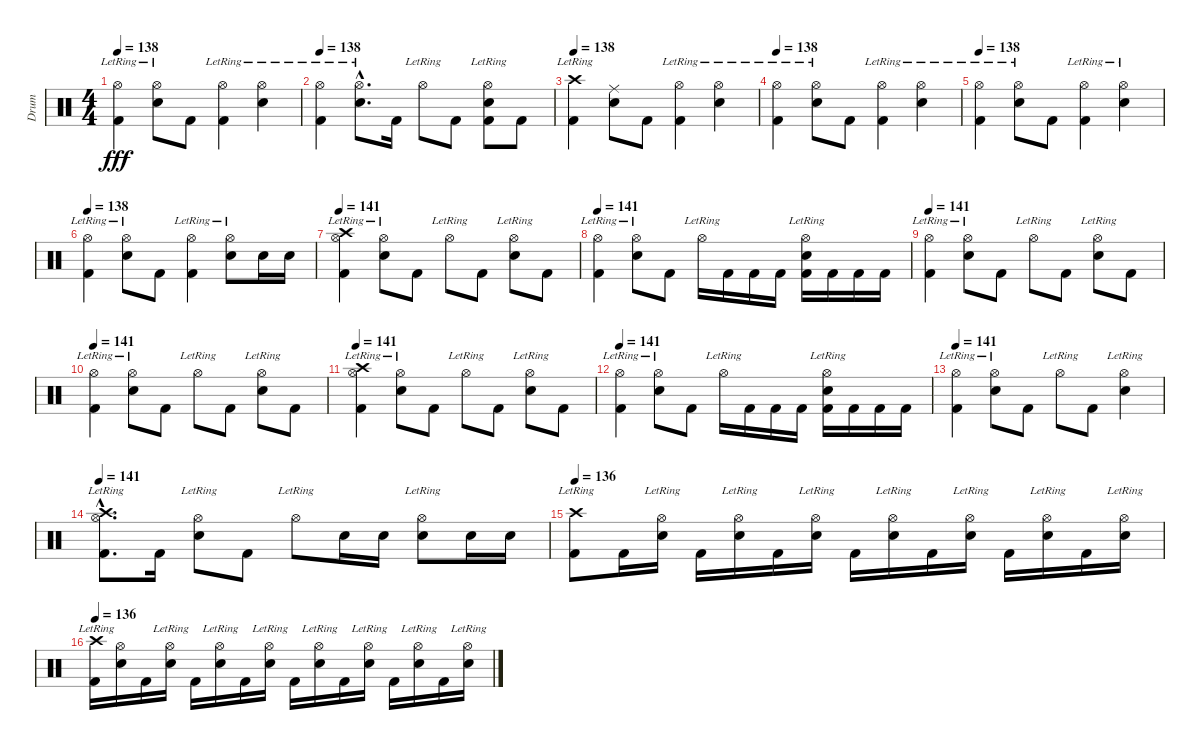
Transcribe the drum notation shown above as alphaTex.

\track ("Drum" "Drum") {instrument percussion}
\staff {score}
\articulation defaults
\ts (4 4)
\tempo 138
\clef neutral
\ks c
("Hi-Hat (open)"{lr} "Kick (hit) 2").4{dy fff} ("Hi-Hat (open)"{lr} "Electric Snare (hit)").8 "Kick (hit) 2".8 ("Hi-Hat (open)"{lr} "Kick (hit) 2").4 ("Hi-Hat (open)"{lr} "Electric Snare (hit)").4 |
\tempo 138
("Hi-Hat (open)"{lr} "Kick (hit) 2").4 ("Hi-Hat (open)"{hac lr} "Electric Snare (hit)"{hac}).8{d} "Kick (hit) 2".16 "Hi-Hat (open)"{lr}.8 "Kick (hit) 2".8 ("Hi-Hat (open)"{lr} "Electric Snare (hit)" "Kick (hit) 2").8 "Kick (hit) 2".8 |
\tempo 138
("Crash high (hit)"{lr} "Kick (hit) 2").4 ("Ride (middle)" "Electric Snare (hit)").8 "Kick (hit) 2".8 ("Hi-Hat (open)"{lr} "Kick (hit) 2").4 ("Hi-Hat (open)"{lr} "Electric Snare (hit)").4 |
\tempo 138
("Hi-Hat (open)"{lr} "Kick (hit) 2").4 ("Hi-Hat (open)"{lr} "Electric Snare (hit)").8 "Kick (hit) 2".8 ("Hi-Hat (open)"{lr} "Kick (hit) 2").4 ("Hi-Hat (open)"{lr} "Electric Snare (hit)").4 |
\tempo 138
("Hi-Hat (open)"{lr} "Kick (hit) 2").4 ("Hi-Hat (open)"{lr} "Electric Snare (hit)").8 "Kick (hit) 2".8 ("Hi-Hat (open)"{lr} "Kick (hit) 2").4 ("Hi-Hat (open)"{lr} "Electric Snare (hit)").4 |
\tempo 138
("Hi-Hat (open)"{lr} "Kick (hit) 2").4 ("Hi-Hat (open)"{lr} "Electric Snare (hit)").8 "Kick (hit) 2".8 ("Hi-Hat (open)"{lr} "Kick (hit) 2").4 ("Hi-Hat (open)"{lr} "Electric Snare (hit)").8 "Electric Snare (hit)".16 "Electric Snare (hit)".16 |
\tempo 141
("Crash high (hit)"{lr} "Hi-Hat (open)"{lr} "Kick (hit) 2").4 ("Hi-Hat (open)"{lr} "Electric Snare (hit)").8 "Kick (hit) 2".8 "Hi-Hat (open)"{lr}.8 "Kick (hit) 2".8 ("Hi-Hat (open)"{lr} "Electric Snare (hit)").8 "Kick (hit) 2".8 |
\tempo 141
("Hi-Hat (open)"{lr} "Kick (hit) 2").4 ("Hi-Hat (open)"{lr} "Electric Snare (hit)").8 "Kick (hit) 2".8 "Hi-Hat (open)"{lr}.16 "Kick (hit) 2".16 "Kick (hit) 2".16 "Kick (hit) 2".16 ("Hi-Hat (open)"{lr} "Electric Snare (hit)" "Kick (hit) 2").16 "Kick (hit) 2".16 "Kick (hit) 2".16 "Kick (hit) 2".16 |
\tempo 141
("Hi-Hat (open)"{lr} "Kick (hit) 2").4 ("Hi-Hat (open)"{lr} "Electric Snare (hit)").8 "Kick (hit) 2".8 "Hi-Hat (open)"{lr}.8 "Kick (hit) 2".8 ("Hi-Hat (open)"{lr} "Electric Snare (hit)").8 "Kick (hit) 2".8 |
\tempo 141
("Hi-Hat (open)"{lr} "Kick (hit) 2").4 ("Hi-Hat (open)"{lr} "Electric Snare (hit)").8 "Kick (hit) 2".8 "Hi-Hat (open)"{lr}.8 "Kick (hit) 2".8 ("Hi-Hat (open)"{lr} "Electric Snare (hit)").8 "Kick (hit) 2".8 |
\tempo 141
("Crash high (hit)"{lr} "Hi-Hat (open)"{lr} "Kick (hit) 2").4 ("Hi-Hat (open)"{lr} "Electric Snare (hit)").8 "Kick (hit) 2".8 "Hi-Hat (open)"{lr}.8 "Kick (hit) 2".8 ("Hi-Hat (open)"{lr} "Electric Snare (hit)").8 "Kick (hit) 2".8 |
\tempo 141
("Hi-Hat (open)"{lr} "Kick (hit) 2").4 ("Hi-Hat (open)"{lr} "Electric Snare (hit)").8 "Kick (hit) 2".8 "Hi-Hat (open)"{lr}.16 "Kick (hit) 2".16 "Kick (hit) 2".16 "Kick (hit) 2".16 ("Hi-Hat (open)"{lr} "Electric Snare (hit)" "Kick (hit) 2").16 "Kick (hit) 2".16 "Kick (hit) 2".16 "Kick (hit) 2".16 |
\tempo 141
("Hi-Hat (open)"{lr} "Kick (hit) 2").4 ("Hi-Hat (open)"{lr} "Electric Snare (hit)").8 "Kick (hit) 2".8 "Hi-Hat (open)"{lr}.8 "Kick (hit) 2".8 ("Hi-Hat (open)"{lr} "Electric Snare (hit)").4 |
\tempo 141
("Crash high (hit)"{hac lr} "Hi-Hat (open)"{hac lr} "Kick (hit) 2"{hac}).8{d} "Kick (hit) 2".16 ("Hi-Hat (open)"{lr} "Electric Snare (hit)").8 "Kick (hit) 2".8 "Hi-Hat (open)"{lr}.8 "Electric Snare (hit)".16 "Electric Snare (hit)".16 ("Hi-Hat (open)"{lr} "Electric Snare (hit)").8 "Electric Snare (hit)".16 "Electric Snare (hit)".16 |
\tempo 136
("Crash high (hit)"{lr} "Kick (hit) 2").8 "Kick (hit) 2".16 ("Hi-Hat (open)"{lr} "Electric Snare (hit)").16 "Kick (hit) 2".16 ("Hi-Hat (open)"{lr} "Electric Snare (hit)").16 "Kick (hit) 2".16 ("Hi-Hat (open)"{lr} "Electric Snare (hit)").16 "Kick (hit) 2".16 ("Hi-Hat (open)"{lr} "Electric Snare (hit)").16 "Kick (hit) 2".16 ("Hi-Hat (open)"{lr} "Electric Snare (hit)").16 "Kick (hit) 2".16 ("Hi-Hat (open)"{lr} "Electric Snare (hit)").16 "Kick (hit) 2".16 ("Hi-Hat (open)"{lr} "Electric Snare (hit)").16 |
\tempo 136
("Crash high (hit)"{lr} "Kick (hit) 2").16 ("Hi-Hat (open)"{lr} "Electric Snare (hit)").16 "Kick (hit) 2".16 ("Hi-Hat (open)"{lr} "Electric Snare (hit)").16 "Kick (hit) 2".16 ("Hi-Hat (open)"{lr} "Electric Snare (hit)").16 "Kick (hit) 2".16 ("Hi-Hat (open)"{lr} "Electric Snare (hit)").16 "Kick (hit) 2".16 ("Hi-Hat (open)"{lr} "Electric Snare (hit)").16 "Kick (hit) 2".16 ("Hi-Hat (open)"{lr} "Electric Snare (hit)").16 "Kick (hit) 2".16 ("Hi-Hat (open)"{lr} "Electric Snare (hit)").16 "Kick (hit) 2".16 ("Hi-Hat (open)"{lr} "Electric Snare (hit)").16
